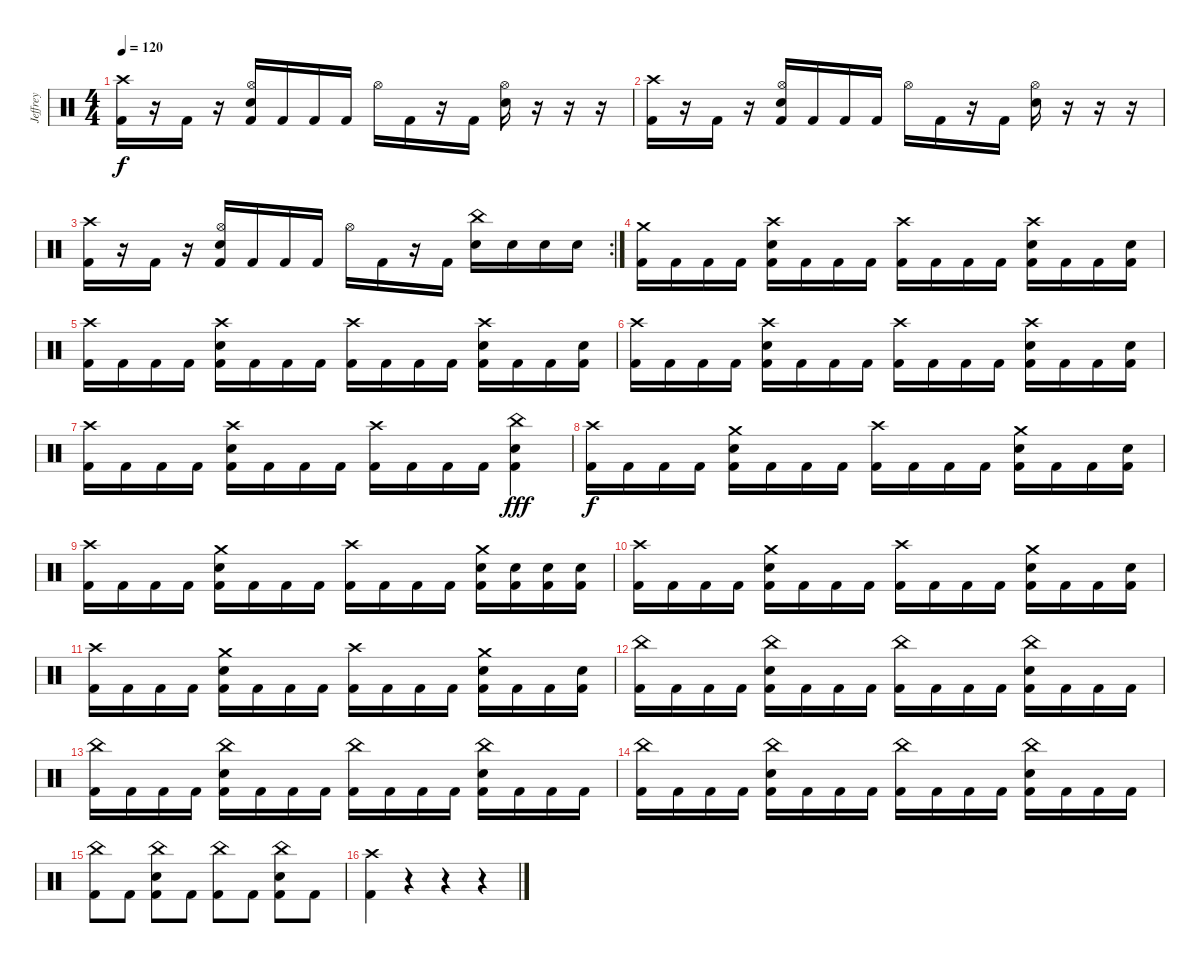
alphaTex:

\track ("Jeffrey" "Jeffrey") {instrument percussion}
\staff {score}
\articulation defaults
\ts (4 4)
\tempo 120
\clef neutral
\ks c
("Crash high (hit)" "Kick (hit) 2").16{dy f} r.16 "Kick (hit) 2".16 r.16 ("Hi-Hat (open)" "Electric Snare (hit)" "Kick (hit) 2").16 "Kick (hit) 2".16 "Kick (hit) 2".16 "Kick (hit) 2".16 "Hi-Hat (open)".16 "Kick (hit) 2".16 r.16 "Kick (hit) 2".16 ("Hi-Hat (open)" "Electric Snare (hit)").16 r.16 r.16 r.16 |
("Crash high (hit)" "Kick (hit) 2").16 r.16 "Kick (hit) 2".16 r.16 ("Hi-Hat (open)" "Electric Snare (hit)" "Kick (hit) 2").16 "Kick (hit) 2".16 "Kick (hit) 2".16 "Kick (hit) 2".16 "Hi-Hat (open)".16 "Kick (hit) 2".16 r.16 "Kick (hit) 2".16 ("Hi-Hat (open)" "Electric Snare (hit)").16 r.16 r.16 r.16 |
\rc 2
("Crash high (hit)" "Kick (hit) 2").16 r.16 "Kick (hit) 2".16 r.16 ("Hi-Hat (open)" "Electric Snare (hit)" "Kick (hit) 2").16 "Kick (hit) 2".16 "Kick (hit) 2".16 "Kick (hit) 2".16 "Hi-Hat (open)".16 "Kick (hit) 2".16 r.16 "Kick (hit) 2".16 ("China (hit)" "Electric Snare (hit)").16 "Electric Snare (hit)".16 "Electric Snare (hit)".16 "Electric Snare (hit)".16 |
("Crash medium (hit)" "Kick (hit) 2").16 "Kick (hit) 2".16 "Kick (hit) 2".16 "Kick (hit) 2".16 ("Crash high (hit)" "Electric Snare (hit)" "Kick (hit) 2").16 "Kick (hit) 2".16 "Kick (hit) 2".16 "Kick (hit) 2".16 ("Crash high (hit)" "Kick (hit) 2").16 "Kick (hit) 2".16 "Kick (hit) 2".16 "Kick (hit) 2".16 ("Crash high (hit)" "Electric Snare (hit)" "Kick (hit) 2").16 "Kick (hit) 2".16 "Kick (hit) 2".16 ("Electric Snare (hit)" "Kick (hit) 2").16 |
("Crash high (hit)" "Kick (hit) 2").16 "Kick (hit) 2".16 "Kick (hit) 2".16 "Kick (hit) 2".16 ("Crash high (hit)" "Electric Snare (hit)" "Kick (hit) 2").16 "Kick (hit) 2".16 "Kick (hit) 2".16 "Kick (hit) 2".16 ("Crash high (hit)" "Kick (hit) 2").16 "Kick (hit) 2".16 "Kick (hit) 2".16 "Kick (hit) 2".16 ("Crash high (hit)" "Electric Snare (hit)" "Kick (hit) 2").16 "Kick (hit) 2".16 "Kick (hit) 2".16 ("Electric Snare (hit)" "Kick (hit) 2").16 |
("Crash high (hit)" "Kick (hit) 2").16 "Kick (hit) 2".16 "Kick (hit) 2".16 "Kick (hit) 2".16 ("Crash high (hit)" "Electric Snare (hit)" "Kick (hit) 2").16 "Kick (hit) 2".16 "Kick (hit) 2".16 "Kick (hit) 2".16 ("Crash high (hit)" "Kick (hit) 2").16 "Kick (hit) 2".16 "Kick (hit) 2".16 "Kick (hit) 2".16 ("Crash high (hit)" "Electric Snare (hit)" "Kick (hit) 2").16 "Kick (hit) 2".16 "Kick (hit) 2".16 ("Electric Snare (hit)" "Kick (hit) 2").16 |
("Crash high (hit)" "Kick (hit) 2").16 "Kick (hit) 2".16 "Kick (hit) 2".16 "Kick (hit) 2".16 ("Crash high (hit)" "Electric Snare (hit)" "Kick (hit) 2").16 "Kick (hit) 2".16 "Kick (hit) 2".16 "Kick (hit) 2".16 ("Crash high (hit)" "Kick (hit) 2").16 "Kick (hit) 2".16 "Kick (hit) 2".16 "Kick (hit) 2".16 ("China (hit)" "Electric Snare (hit)" "Kick (hit) 2").4{dy fff} |
("Crash high (hit)" "Kick (hit) 2").16{dy f} "Kick (hit) 2".16 "Kick (hit) 2".16 "Kick (hit) 2".16 ("Crash medium (hit)" "Electric Snare (hit)" "Kick (hit) 2").16 "Kick (hit) 2".16 "Kick (hit) 2".16 "Kick (hit) 2".16 ("Crash high (hit)" "Kick (hit) 2").16 "Kick (hit) 2".16 "Kick (hit) 2".16 "Kick (hit) 2".16 ("Crash medium (hit)" "Electric Snare (hit)" "Kick (hit) 2").16 "Kick (hit) 2".16 "Kick (hit) 2".16 ("Electric Snare (hit)" "Kick (hit) 2").16 |
("Crash high (hit)" "Kick (hit) 2").16 "Kick (hit) 2".16 "Kick (hit) 2".16 "Kick (hit) 2".16 ("Crash medium (hit)" "Electric Snare (hit)" "Kick (hit) 2").16 "Kick (hit) 2".16 "Kick (hit) 2".16 "Kick (hit) 2".16 ("Crash high (hit)" "Kick (hit) 2").16 "Kick (hit) 2".16 "Kick (hit) 2".16 "Kick (hit) 2".16 ("Crash medium (hit)" "Electric Snare (hit)" "Kick (hit) 2").16 ("Electric Snare (hit)" "Kick (hit) 2").16 ("Electric Snare (hit)" "Kick (hit) 2").16 ("Electric Snare (hit)" "Kick (hit) 2").16 |
("Crash high (hit)" "Kick (hit) 2").16 "Kick (hit) 2".16 "Kick (hit) 2".16 "Kick (hit) 2".16 ("Crash medium (hit)" "Electric Snare (hit)" "Kick (hit) 2").16 "Kick (hit) 2".16 "Kick (hit) 2".16 "Kick (hit) 2".16 ("Crash high (hit)" "Kick (hit) 2").16 "Kick (hit) 2".16 "Kick (hit) 2".16 "Kick (hit) 2".16 ("Crash medium (hit)" "Electric Snare (hit)" "Kick (hit) 2").16 "Kick (hit) 2".16 "Kick (hit) 2".16 ("Electric Snare (hit)" "Kick (hit) 2").16 |
("Crash high (hit)" "Kick (hit) 2").16 "Kick (hit) 2".16 "Kick (hit) 2".16 "Kick (hit) 2".16 ("Crash medium (hit)" "Electric Snare (hit)" "Kick (hit) 2").16 "Kick (hit) 2".16 "Kick (hit) 2".16 "Kick (hit) 2".16 ("Crash high (hit)" "Kick (hit) 2").16 "Kick (hit) 2".16 "Kick (hit) 2".16 "Kick (hit) 2".16 ("Crash medium (hit)" "Electric Snare (hit)" "Kick (hit) 2").16 "Kick (hit) 2".16 "Kick (hit) 2".16 ("Electric Snare (hit)" "Kick (hit) 2").16 |
("China (hit)" "Kick (hit) 2").16 "Kick (hit) 2".16 "Kick (hit) 2".16 "Kick (hit) 2".16 ("China (hit)" "Electric Snare (hit)" "Kick (hit) 2").16 "Kick (hit) 2".16 "Kick (hit) 2".16 "Kick (hit) 2".16 ("China (hit)" "Kick (hit) 2").16 "Kick (hit) 2".16 "Kick (hit) 2".16 "Kick (hit) 2".16 ("China (hit)" "Electric Snare (hit)" "Kick (hit) 2").16 "Kick (hit) 2".16 "Kick (hit) 2".16 "Kick (hit) 2".16 |
("China (hit)" "Kick (hit) 2").16 "Kick (hit) 2".16 "Kick (hit) 2".16 "Kick (hit) 2".16 ("China (hit)" "Electric Snare (hit)" "Kick (hit) 2").16 "Kick (hit) 2".16 "Kick (hit) 2".16 "Kick (hit) 2".16 ("China (hit)" "Kick (hit) 2").16 "Kick (hit) 2".16 "Kick (hit) 2".16 "Kick (hit) 2".16 ("China (hit)" "Electric Snare (hit)" "Kick (hit) 2").16 "Kick (hit) 2".16 "Kick (hit) 2".16 "Kick (hit) 2".16 |
("China (hit)" "Kick (hit) 2").16 "Kick (hit) 2".16 "Kick (hit) 2".16 "Kick (hit) 2".16 ("China (hit)" "Electric Snare (hit)" "Kick (hit) 2").16 "Kick (hit) 2".16 "Kick (hit) 2".16 "Kick (hit) 2".16 ("China (hit)" "Kick (hit) 2").16 "Kick (hit) 2".16 "Kick (hit) 2".16 "Kick (hit) 2".16 ("China (hit)" "Electric Snare (hit)" "Kick (hit) 2").16 "Kick (hit) 2".16 "Kick (hit) 2".16 "Kick (hit) 2".16 |
("China (hit)" "Kick (hit) 2").8 "Kick (hit) 2".8 ("China (hit)" "Electric Snare (hit)" "Kick (hit) 2").8 "Kick (hit) 2".8 ("China (hit)" "Kick (hit) 2").8 "Kick (hit) 2".8 ("China (hit)" "Electric Snare (hit)" "Kick (hit) 2").8 "Kick (hit) 2".8 |
("Crash high (hit)" "Kick (hit) 2").4 r.4 r.4 r.4
